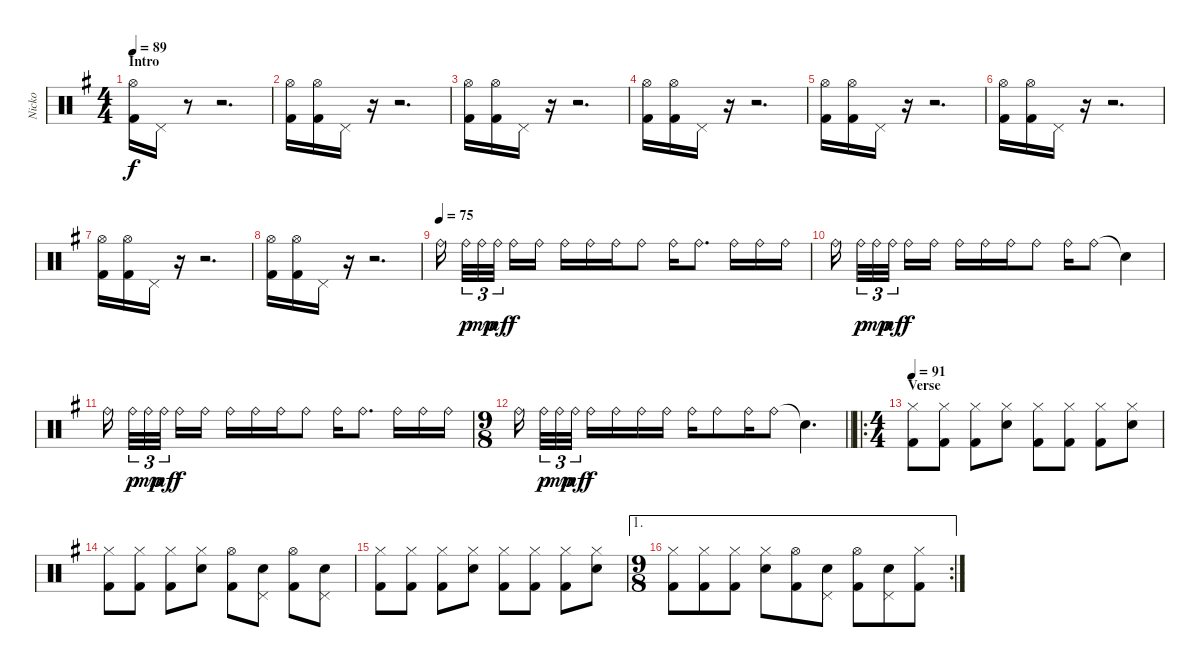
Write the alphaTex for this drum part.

\track ("Nicko" "Nicko") {instrument percussion}
\staff {score}
\articulation defaults
\ts (4 4)
\section ("" "Intro")
\tempo 89
\clef neutral
\ks eminor
("Hi-Hat (open)" "Kick (hit) 2").16{dy f} "Pedal Hi-Hat (hit)".16 r.8 r.2{d} |
("Hi-Hat (open)" "Kick (hit) 2").16 ("Hi-Hat (open)" "Kick (hit) 2").16 "Pedal Hi-Hat (hit)".16 r.16 r.2{d} |
("Hi-Hat (open)" "Kick (hit) 2").16 ("Hi-Hat (open)" "Kick (hit) 2").16 "Pedal Hi-Hat (hit)".16 r.16 r.2{d} |
("Hi-Hat (open)" "Kick (hit) 2").16 ("Hi-Hat (open)" "Kick (hit) 2").16 "Pedal Hi-Hat (hit)".16 r.16 r.2{d} |
("Hi-Hat (open)" "Kick (hit) 2").16 ("Hi-Hat (open)" "Kick (hit) 2").16 "Pedal Hi-Hat (hit)".16 r.16 r.2{d} |
("Hi-Hat (open)" "Kick (hit) 2").16 ("Hi-Hat (open)" "Kick (hit) 2").16 "Pedal Hi-Hat (hit)".16 r.16 r.2{d} |
("Hi-Hat (open)" "Kick (hit) 2").16 ("Hi-Hat (open)" "Kick (hit) 2").16 "Pedal Hi-Hat (hit)".16 r.16 r.2{d} |
("Hi-Hat (open)" "Kick (hit) 2").16 ("Hi-Hat (open)" "Kick (hit) 2").16 "Pedal Hi-Hat (hit)".16 r.16 r.2{d} |
\tempo (75)
"Ride (bell)".16{beam splitsecondary} "Ride (bell)".32{tu (3 2) dy p} "Ride (bell)".32{tu (3 2) dy mp} "Ride (bell)".32{tu (3 2) dy mf beam splitsecondary} "Ride (bell)".16{dy f} "Ride (bell)".16 "Ride (bell)".16 "Ride (bell)".16 "Ride (bell)".16 "Ride (bell)".8 "Ride (bell)".16 "Ride (bell)".8{d} "Ride (bell)".16 "Ride (bell)".16 "Ride (bell)".16 |
"Ride (bell)".16{beam splitsecondary} "Ride (bell)".32{tu (3 2) dy p} "Ride (bell)".32{tu (3 2) dy mp} "Ride (bell)".32{tu (3 2) dy mf beam splitsecondary} "Ride (bell)".16{dy f} "Ride (bell)".16 "Ride (bell)".16 "Ride (bell)".16 "Ride (bell)".16 "Ride (bell)".8 "Ride (bell)".16 "Ride (bell)".8 "Snare (hit)"{t}.4 |
"Ride (bell)".16{beam splitsecondary} "Ride (bell)".32{tu (3 2) dy p} "Ride (bell)".32{tu (3 2) dy mp} "Ride (bell)".32{tu (3 2) dy mf beam splitsecondary} "Ride (bell)".16{dy f} "Ride (bell)".16 "Ride (bell)".16 "Ride (bell)".16 "Ride (bell)".16 "Ride (bell)".8 "Ride (bell)".16 "Ride (bell)".8{d} "Ride (bell)".16 "Ride (bell)".16 "Ride (bell)".16 |
\ts (9 8)
\barLineRight lightlight "Ride (bell)".16{beam splitsecondary} "Ride (bell)".32{tu (3 2) dy p} "Ride (bell)".32{tu (3 2) dy mp} "Ride (bell)".32{tu (3 2) dy mf beam splitsecondary} "Ride (bell)".16{dy f} "Ride (bell)".16 "Ride (bell)".16 "Ride (bell)".16 "Ride (bell)".16 "Ride (bell)".8 "Ride (bell)".16 "Ride (bell)".8 "Snare (hit)"{t}.4{d}
|
\ro
\ts (4 4)
\section ("" "Verse")
\tempo 91
("Hi-Hat (closed)" "Kick (hit) 2").8 ("Hi-Hat (closed)" "Kick (hit) 2").8 ("Hi-Hat (closed)" "Kick (hit) 2").8 ("Hi-Hat (closed)" "Snare (hit) 2").8 ("Hi-Hat (closed)" "Kick (hit) 2").8 ("Hi-Hat (closed)" "Kick (hit) 2").8 ("Hi-Hat (closed)" "Kick (hit) 2").8 ("Hi-Hat (closed)" "Snare (hit) 2").8 |
("Hi-Hat (closed)" "Kick (hit) 2").8 ("Hi-Hat (closed)" "Kick (hit) 2").8 ("Hi-Hat (closed)" "Kick (hit) 2").8 ("Hi-Hat (closed)" "Snare (hit) 2").8 ("Hi-Hat (open)" "Kick (hit) 2").8 ("Pedal Hi-Hat (hit)" "Snare (hit) 2").8 ("Hi-Hat (open)" "Kick (hit) 2").8 ("Pedal Hi-Hat (hit)" "Snare (hit) 2").8 |
("Hi-Hat (closed)" "Kick (hit) 2").8 ("Hi-Hat (closed)" "Kick (hit) 2").8 ("Hi-Hat (closed)" "Kick (hit) 2").8 ("Hi-Hat (closed)" "Snare (hit) 2").8 ("Hi-Hat (closed)" "Kick (hit) 2").8 ("Hi-Hat (closed)" "Kick (hit) 2").8 ("Hi-Hat (closed)" "Kick (hit) 2").8 ("Hi-Hat (closed)" "Snare (hit) 2").8 |
\ae 1
\rc 2
\ts (9 8)
("Hi-Hat (closed)" "Kick (hit) 2").8 ("Hi-Hat (closed)" "Kick (hit) 2").8 ("Hi-Hat (closed)" "Kick (hit) 2").8 ("Hi-Hat (closed)" "Snare (hit) 2").8 ("Hi-Hat (open)" "Kick (hit) 2").8 ("Pedal Hi-Hat (hit)" "Snare (hit) 2").8 ("Hi-Hat (open)" "Kick (hit) 2").8 ("Pedal Hi-Hat (hit)" "Snare (hit) 2").8 ("Hi-Hat (closed)" "Kick (hit) 2").8
